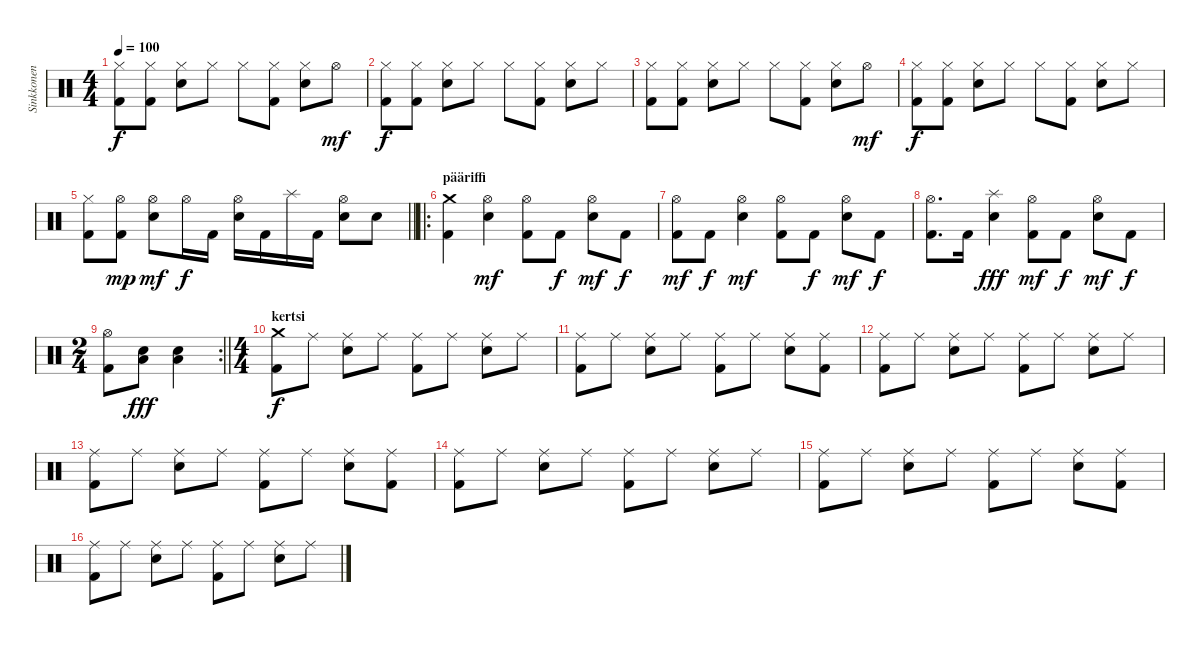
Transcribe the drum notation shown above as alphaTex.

\track ("Sinkkonen" "Sinkkonen") {instrument percussion}
\staff {score}
\articulation defaults
\ts (4 4)
\tempo 100
\clef neutral
\ks c
("Kick (hit) 2" "Hi-Hat (closed)").8{dy f} ("Kick (hit) 2" "Hi-Hat (closed)").8 ("Hi-Hat (closed)" "Electric Snare (hit)").8 "Hi-Hat (closed)".8 "Hi-Hat (closed)".8 ("Kick (hit) 2" "Hi-Hat (closed)").8 ("Hi-Hat (closed)" "Electric Snare (hit)").8 "Hi-Hat (open)".8{dy mf} |
("Kick (hit) 2" "Hi-Hat (closed)").8{dy f} ("Kick (hit) 2" "Hi-Hat (closed)").8 ("Hi-Hat (closed)" "Electric Snare (hit)").8 "Hi-Hat (closed)".8 "Hi-Hat (closed)".8 ("Kick (hit) 2" "Hi-Hat (closed)").8 ("Hi-Hat (closed)" "Electric Snare (hit)").8 "Hi-Hat (closed)".8 |
("Kick (hit) 2" "Hi-Hat (closed)").8 ("Kick (hit) 2" "Hi-Hat (closed)").8 ("Hi-Hat (closed)" "Electric Snare (hit)").8 "Hi-Hat (closed)".8 "Hi-Hat (closed)".8 ("Kick (hit) 2" "Hi-Hat (closed)").8 ("Hi-Hat (closed)" "Electric Snare (hit)").8 "Hi-Hat (open)".8{dy mf} |
("Kick (hit) 2" "Hi-Hat (closed)").8{dy f} ("Kick (hit) 2" "Hi-Hat (closed)").8 ("Hi-Hat (closed)" "Electric Snare (hit)").8 "Hi-Hat (closed)".8 "Hi-Hat (closed)".8 ("Kick (hit) 2" "Hi-Hat (closed)").8 ("Hi-Hat (closed)" "Electric Snare (hit)").8 "Hi-Hat (closed)".8 |
\barLineRight lightlight
("Kick (hit) 2" "Hi-Hat (closed)").8 ("Kick (hit) 2" "Hi-Hat (open)").8{dy mp} ("Hi-Hat (open)" "Electric Snare (hit)").8{dy mf} "Hi-Hat (open)".16{dy f} "Kick (hit) 2".16 ("Hi-Hat (open)" "Electric Snare (hit)").16 "Kick (hit) 2".16 "Splash (hit)".16 "Kick (hit) 2".16 ("Hi-Hat (open)" "Electric Snare (hit)").8 "Electric Snare (hit)".8 |
\ro
\section ("" "pääriffi")
("Kick (hit) 2" "Crash medium (hit)").4 ("Hi-Hat (open)" "Electric Snare (hit)").4{dy mf} ("Kick (hit) 2" "Hi-Hat (open)").8 "Kick (hit) 2".8{dy f} ("Hi-Hat (open)" "Electric Snare (hit)").8{dy mf} "Kick (hit) 2".8{dy f} |
("Kick (hit) 2" "Hi-Hat (open)").8{dy mf} "Kick (hit) 2".8{dy f} ("Hi-Hat (open)" "Electric Snare (hit)").4{dy mf} ("Kick (hit) 2" "Hi-Hat (open)").8 "Kick (hit) 2".8{dy f} ("Hi-Hat (open)" "Electric Snare (hit)").8{dy mf} "Kick (hit) 2".8{dy f} |
("Kick (hit) 2" "Hi-Hat (open)").8{d} "Kick (hit) 2".16 ("Splash (hit)" "Electric Snare (hit)").4{dy fff} ("Kick (hit) 2" "Hi-Hat (open)").8{dy mf} "Kick (hit) 2".8{dy f} ("Hi-Hat (open)" "Electric Snare (hit)").8{dy mf} "Kick (hit) 2".8{dy f} |
\rc 2
\ts (2 4)
\barLineRight lightlight
("Kick (hit) 2" "Hi-Hat (open)").8 ("Low Floor Tom (hit)" "Electric Snare (hit)").8{dy fff} ("Low Floor Tom (hit)" "Electric Snare (hit)").4 |
\ts (4 4)
\section ("" "kertsi")
("Kick (hit) 2" "Crash medium (hit)").8{dy f} "Ride (middle)".8 ("Ride (middle)" "Electric Snare (hit)").8 "Ride (middle)".8 ("Kick (hit) 2" "Ride (middle)").8 "Ride (middle)".8 ("Ride (middle)" "Electric Snare (hit)").8 "Ride (middle)".8 |
("Kick (hit) 2" "Ride (middle)").8 "Ride (middle)".8 ("Ride (middle)" "Electric Snare (hit)").8 "Ride (middle)".8 ("Kick (hit) 2" "Ride (middle)").8 "Ride (middle)".8 ("Ride (middle)" "Electric Snare (hit)").8 ("Kick (hit) 2" "Ride (middle)").8 |
("Kick (hit) 2" "Ride (middle)").8 "Ride (middle)".8 ("Ride (middle)" "Electric Snare (hit)").8 "Ride (middle)".8 ("Kick (hit) 2" "Ride (middle)").8 "Ride (middle)".8 ("Ride (middle)" "Electric Snare (hit)").8 "Ride (middle)".8 |
("Kick (hit) 2" "Ride (middle)").8 "Ride (middle)".8 ("Ride (middle)" "Electric Snare (hit)").8 "Ride (middle)".8 ("Kick (hit) 2" "Ride (middle)").8 "Ride (middle)".8 ("Ride (middle)" "Electric Snare (hit)").8 ("Kick (hit) 2" "Ride (middle)").8 |
("Kick (hit) 2" "Ride (middle)").8 "Ride (middle)".8 ("Ride (middle)" "Electric Snare (hit)").8 "Ride (middle)".8 ("Kick (hit) 2" "Ride (middle)").8 "Ride (middle)".8 ("Ride (middle)" "Electric Snare (hit)").8 "Ride (middle)".8 |
("Kick (hit) 2" "Ride (middle)").8 "Ride (middle)".8 ("Ride (middle)" "Electric Snare (hit)").8 "Ride (middle)".8 ("Kick (hit) 2" "Ride (middle)").8 "Ride (middle)".8 ("Ride (middle)" "Electric Snare (hit)").8 ("Kick (hit) 2" "Ride (middle)").8 |
("Kick (hit) 2" "Ride (middle)").8 "Ride (middle)".8 ("Ride (middle)" "Electric Snare (hit)").8 "Ride (middle)".8 ("Kick (hit) 2" "Ride (middle)").8 "Ride (middle)".8 ("Ride (middle)" "Electric Snare (hit)").8 "Ride (middle)".8
